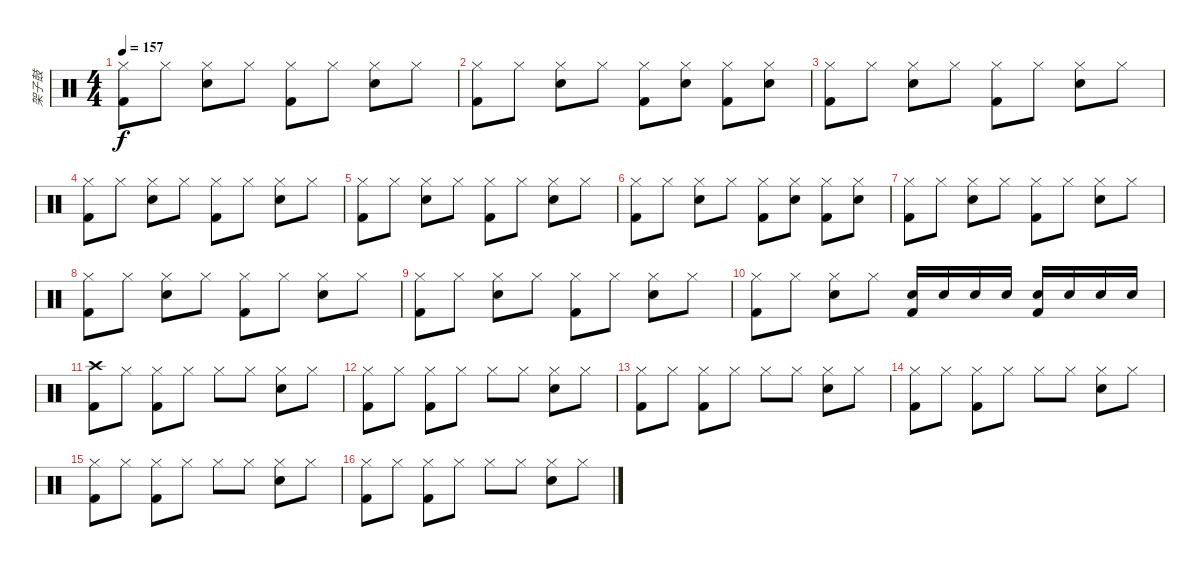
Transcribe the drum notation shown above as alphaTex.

\track ("架子鼓" "架子鼓") {instrument percussion}
\staff {score}
\articulation defaults
\ts (4 4)
\tempo 157
\clef neutral
\ks c
("Hi-Hat (closed)" "Kick (hit) 2").8{dy f} "Hi-Hat (closed)".8 ("Hi-Hat (closed)" "Snare (hit) 2").8 "Hi-Hat (closed)".8 ("Hi-Hat (closed)" "Kick (hit) 2").8 "Hi-Hat (closed)".8 ("Hi-Hat (closed)" "Snare (hit) 2").8 "Hi-Hat (closed)".8 |
("Hi-Hat (closed)" "Kick (hit) 2").8 "Hi-Hat (closed)".8 ("Hi-Hat (closed)" "Snare (hit) 2").8 "Hi-Hat (closed)".8 ("Hi-Hat (closed)" "Kick (hit) 2").8 ("Hi-Hat (closed)" "Snare (hit) 2").8 ("Hi-Hat (closed)" "Kick (hit) 2").8 ("Hi-Hat (closed)" "Snare (hit) 2").8 |
("Hi-Hat (closed)" "Kick (hit) 2").8 "Hi-Hat (closed)".8 ("Hi-Hat (closed)" "Snare (hit) 2").8 "Hi-Hat (closed)".8 ("Hi-Hat (closed)" "Kick (hit) 2").8 "Hi-Hat (closed)".8 ("Hi-Hat (closed)" "Snare (hit) 2").8 "Hi-Hat (closed)".8 |
("Hi-Hat (closed)" "Kick (hit) 2").8 "Hi-Hat (closed)".8 ("Hi-Hat (closed)" "Snare (hit) 2").8 "Hi-Hat (closed)".8 ("Hi-Hat (closed)" "Kick (hit) 2").8 "Hi-Hat (closed)".8 ("Hi-Hat (closed)" "Snare (hit) 2").8 "Hi-Hat (closed)".8 |
("Hi-Hat (closed)" "Kick (hit) 2").8 "Hi-Hat (closed)".8 ("Hi-Hat (closed)" "Snare (hit) 2").8 "Hi-Hat (closed)".8 ("Hi-Hat (closed)" "Kick (hit) 2").8 "Hi-Hat (closed)".8 ("Hi-Hat (closed)" "Snare (hit) 2").8 "Hi-Hat (closed)".8 |
("Hi-Hat (closed)" "Kick (hit) 2").8 "Hi-Hat (closed)".8 ("Hi-Hat (closed)" "Snare (hit) 2").8 "Hi-Hat (closed)".8 ("Hi-Hat (closed)" "Kick (hit) 2").8 ("Hi-Hat (closed)" "Snare (hit) 2").8 ("Hi-Hat (closed)" "Kick (hit) 2").8 ("Hi-Hat (closed)" "Snare (hit) 2").8 |
("Hi-Hat (closed)" "Kick (hit) 2").8 "Hi-Hat (closed)".8 ("Hi-Hat (closed)" "Snare (hit) 2").8 "Hi-Hat (closed)".8 ("Hi-Hat (closed)" "Kick (hit) 2").8 "Hi-Hat (closed)".8 ("Hi-Hat (closed)" "Snare (hit) 2").8 "Hi-Hat (closed)".8 |
("Hi-Hat (closed)" "Kick (hit) 2").8 "Hi-Hat (closed)".8 ("Hi-Hat (closed)" "Snare (hit) 2").8 "Hi-Hat (closed)".8 ("Hi-Hat (closed)" "Kick (hit) 2").8 "Hi-Hat (closed)".8 ("Hi-Hat (closed)" "Snare (hit) 2").8 "Hi-Hat (closed)".8 |
("Hi-Hat (closed)" "Kick (hit) 2").8 "Hi-Hat (closed)".8 ("Hi-Hat (closed)" "Snare (hit) 2").8 "Hi-Hat (closed)".8 ("Hi-Hat (closed)" "Kick (hit) 2").8 "Hi-Hat (closed)".8 ("Hi-Hat (closed)" "Snare (hit) 2").8 "Hi-Hat (closed)".8 |
("Hi-Hat (closed)" "Kick (hit) 2").8 "Hi-Hat (closed)".8 ("Hi-Hat (closed)" "Snare (hit) 2").8 "Hi-Hat (closed)".8 ("Snare (hit) 2" "Kick (hit) 2").16 "Snare (hit) 2".16 "Snare (hit) 2".16 "Snare (hit) 2".16 ("Snare (hit) 2" "Kick (hit) 2").16 "Snare (hit) 2".16 "Snare (hit) 2".16 "Snare (hit) 2".16 |
("Crash high (hit)" "Kick (hit) 2").8 "Hi-Hat (closed)".8 ("Hi-Hat (closed)" "Kick (hit) 2").8 "Hi-Hat (closed)".8 "Hi-Hat (closed)".8 "Hi-Hat (closed)".8 ("Hi-Hat (closed)" "Snare (hit) 2").8 "Hi-Hat (closed)".8 |
("Hi-Hat (closed)" "Kick (hit) 2").8 "Hi-Hat (closed)".8 ("Hi-Hat (closed)" "Kick (hit) 2").8 "Hi-Hat (closed)".8 "Hi-Hat (closed)".8 "Hi-Hat (closed)".8 ("Hi-Hat (closed)" "Snare (hit) 2").8 "Hi-Hat (closed)".8 |
("Hi-Hat (closed)" "Kick (hit) 2").8 "Hi-Hat (closed)".8 ("Hi-Hat (closed)" "Kick (hit) 2").8 "Hi-Hat (closed)".8 "Hi-Hat (closed)".8 "Hi-Hat (closed)".8 ("Hi-Hat (closed)" "Snare (hit) 2").8 "Hi-Hat (closed)".8 |
("Hi-Hat (closed)" "Kick (hit) 2").8 "Hi-Hat (closed)".8 ("Hi-Hat (closed)" "Kick (hit) 2").8 "Hi-Hat (closed)".8 "Hi-Hat (closed)".8 "Hi-Hat (closed)".8 ("Hi-Hat (closed)" "Snare (hit) 2").8 "Hi-Hat (closed)".8 |
("Hi-Hat (closed)" "Kick (hit) 2").8 "Hi-Hat (closed)".8 ("Hi-Hat (closed)" "Kick (hit) 2").8 "Hi-Hat (closed)".8 "Hi-Hat (closed)".8 "Hi-Hat (closed)".8 ("Hi-Hat (closed)" "Snare (hit) 2").8 "Hi-Hat (closed)".8 |
("Hi-Hat (closed)" "Kick (hit) 2").8 "Hi-Hat (closed)".8 ("Hi-Hat (closed)" "Kick (hit) 2").8 "Hi-Hat (closed)".8 "Hi-Hat (closed)".8 "Hi-Hat (closed)".8 ("Hi-Hat (closed)" "Snare (hit) 2").8 "Hi-Hat (closed)".8
